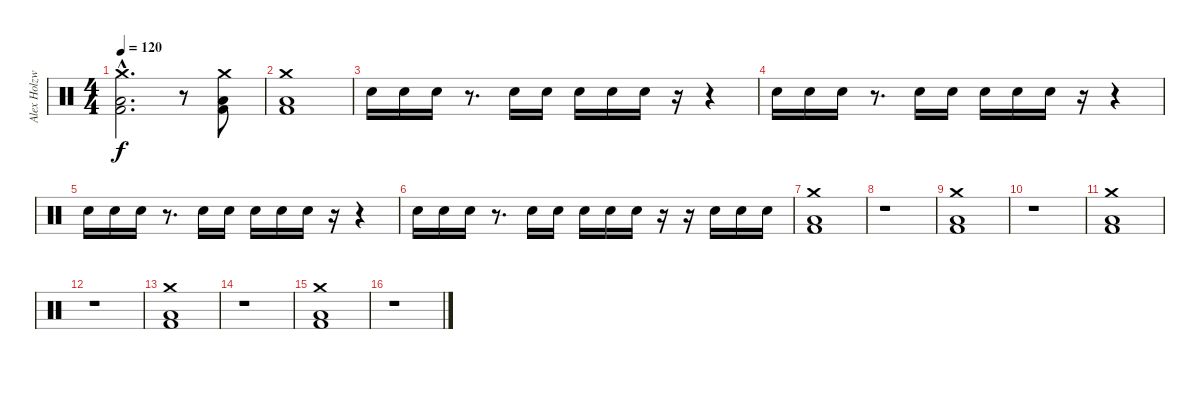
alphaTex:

\track ("Alex Holzwarth - Drums" "Alex Holzw") {instrument percussion}
\staff {score}
\articulation defaults
\ts (4 4)
\tempo 120
\clef neutral
\ks c
("Crash medium (hit)"{hac} "Low Floor Tom (hit)"{hac} "Kick (hit) 2"{hac}).2{d dy f} r.8 ("Crash medium (hit)" "Low Floor Tom (hit)" "Kick (hit) 2").8 |
("Crash medium (hit)" "Low Floor Tom (hit)" "Kick (hit) 2").1 |
"Electric Snare (hit)".16 "Electric Snare (hit)".16 "Electric Snare (hit)".16 r.8{d} "Electric Snare (hit)".16 "Electric Snare (hit)".16 "Electric Snare (hit)".16 "Electric Snare (hit)".16 "Electric Snare (hit)".16 r.16 r.4 |
"Electric Snare (hit)".16 "Electric Snare (hit)".16 "Electric Snare (hit)".16 r.8{d} "Electric Snare (hit)".16 "Electric Snare (hit)".16 "Electric Snare (hit)".16 "Electric Snare (hit)".16 "Electric Snare (hit)".16 r.16 r.4 |
"Electric Snare (hit)".16 "Electric Snare (hit)".16 "Electric Snare (hit)".16 r.8{d} "Electric Snare (hit)".16 "Electric Snare (hit)".16 "Electric Snare (hit)".16 "Electric Snare (hit)".16 "Electric Snare (hit)".16 r.16 r.4 |
"Electric Snare (hit)".16 "Electric Snare (hit)".16 "Electric Snare (hit)".16 r.8{d} "Electric Snare (hit)".16 "Electric Snare (hit)".16 "Electric Snare (hit)".16 "Electric Snare (hit)".16 "Electric Snare (hit)".16 r.16 r.16 "Electric Snare (hit)".16 "Electric Snare (hit)".16 "Electric Snare (hit)".16 |
("Crash medium (hit)" "Low Floor Tom (hit)" "Kick (hit) 2").1 |
r.1 |
("Crash medium (hit)" "Low Floor Tom (hit)" "Kick (hit) 2").1 |
r.1 |
("Crash medium (hit)" "Low Floor Tom (hit)" "Kick (hit) 2").1 |
r.1 |
("Crash medium (hit)" "Low Floor Tom (hit)" "Kick (hit) 2").1 |
r.1 |
("Crash medium (hit)" "Low Floor Tom (hit)" "Kick (hit) 2").1 |
r.1
